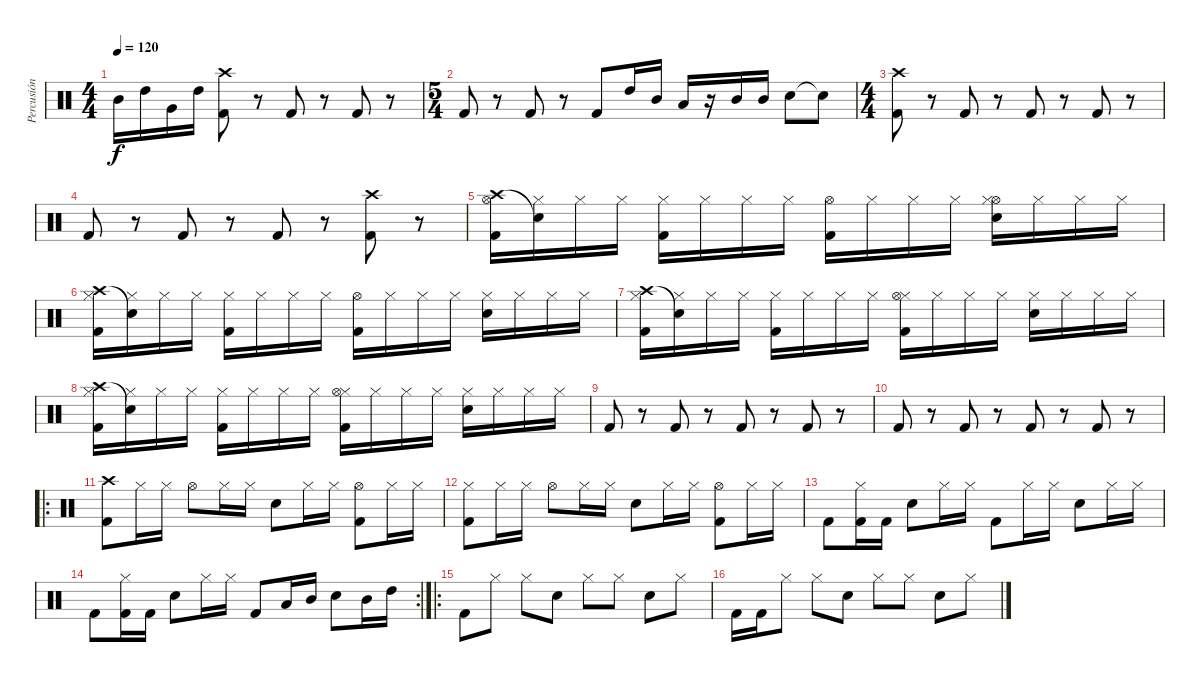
\track ("Percusión" "Percusión") {instrument percussion}
\staff {score}
\articulation defaults
\ts (4 4)
\tempo 120
\clef neutral
\ks c "Mid Tom (hit)".16{dy f} "High Tom (hit)".16 "Very Low Tom (hit)".16 "High Tom (hit)".16
("Crash high (hit)" "Kick (hit) 2").8 r.8 "Kick (hit) 2".8 r.8 "Kick (hit) 2".8 r.8 |
\ts (5 4)
"Kick (hit) 2".8 r.8 "Kick (hit) 2".8 r.8 "Kick (hit) 2".8 "High Tom (hit)".16 "Mid Tom (hit)".16 "Low Tom (hit)".16 r.16 "Mid Tom (hit)".16 "Mid Tom (hit)".16 "Snare (hit) 2".8 "Snare (hit)"{t}.8 |
\ts (4 4)
("Crash high (hit)" "Kick (hit) 2").8 r.8 "Kick (hit) 2".8 r.8 "Kick (hit) 2".8 r.8 "Kick (hit) 2".8 r.8 |
"Kick (hit) 2".8 r.8 "Kick (hit) 2".8 r.8 "Kick (hit) 2".8 r.8 ("Crash high (hit)" "Kick (hit) 2").8 r.8 |
("Crash high (hit)" "Kick (hit) 2" "Hi-Hat (open)").16 ("Snare (hit)"{t} "Hi-Hat (closed)").16 "Hi-Hat (closed)".16 "Hi-Hat (closed)".16 ("Kick (hit) 2" "Hi-Hat (closed)").16 "Hi-Hat (closed)".16 "Hi-Hat (closed)".16 "Hi-Hat (closed)".16 ("Kick (hit) 2" "Hi-Hat (open)").16 "Hi-Hat (closed)".16 "Hi-Hat (closed)".16 "Hi-Hat (closed)".16 ("Hi-Hat (open)" "Snare (hit) 2" "Hi-Hat (closed)").16 "Hi-Hat (closed)".16 "Hi-Hat (closed)".16 "Hi-Hat (closed)".16 |
("Crash high (hit)" "Kick (hit) 2" "Hi-Hat (closed)").16 ("Snare (hit)"{t} "Hi-Hat (closed)").16 "Hi-Hat (closed)".16 "Hi-Hat (closed)".16 ("Kick (hit) 2" "Hi-Hat (closed)").16 "Hi-Hat (closed)".16 "Hi-Hat (closed)".16 "Hi-Hat (closed)".16 ("Kick (hit) 2" "Hi-Hat (open)").16 "Hi-Hat (closed)".16 "Hi-Hat (closed)".16 "Hi-Hat (closed)".16 ("Snare (hit) 2" "Hi-Hat (closed)").16 "Hi-Hat (closed)".16 "Hi-Hat (closed)".16 "Hi-Hat (closed)".16 |
("Crash high (hit)" "Kick (hit) 2" "Hi-Hat (closed)").16 ("Snare (hit)"{t} "Hi-Hat (closed)").16 "Hi-Hat (closed)".16 "Hi-Hat (closed)".16 ("Kick (hit) 2" "Hi-Hat (closed)").16 "Hi-Hat (closed)".16 "Hi-Hat (closed)".16 "Hi-Hat (closed)".16 ("Kick (hit) 2" "Hi-Hat (closed)" "Hi-Hat (open)").16 "Hi-Hat (closed)".16 "Hi-Hat (closed)".16 "Hi-Hat (closed)".16 ("Snare (hit) 2" "Hi-Hat (closed)").16 "Hi-Hat (closed)".16 "Hi-Hat (closed)".16 "Hi-Hat (closed)".16 |
("Crash high (hit)" "Kick (hit) 2" "Hi-Hat (closed)").16 ("Snare (hit)"{t} "Hi-Hat (closed)").16 "Hi-Hat (closed)".16 "Hi-Hat (closed)".16 ("Kick (hit) 2" "Hi-Hat (closed)").16 "Hi-Hat (closed)".16 "Hi-Hat (closed)".16 "Hi-Hat (closed)".16 ("Kick (hit) 2" "Hi-Hat (closed)" "Hi-Hat (open)").16 "Hi-Hat (closed)".16 "Hi-Hat (closed)".16 "Hi-Hat (closed)".16 ("Snare (hit) 2" "Hi-Hat (closed)").16 "Hi-Hat (closed)".16 "Hi-Hat (closed)".16 "Hi-Hat (closed)".16 |
"Kick (hit) 2".8 r.8 "Kick (hit) 2".8 r.8 "Kick (hit) 2".8 r.8 "Kick (hit) 2".8 r.8 |
"Kick (hit) 2".8 r.8 "Kick (hit) 2".8 r.8 "Kick (hit) 2".8 r.8 "Kick (hit) 2".8 r.8 |
\ro
("Crash high (hit)" "Kick (hit) 2").8 "Hi-Hat (closed)".16 "Hi-Hat (closed)".16 "Hi-Hat (open)".8 "Hi-Hat (closed)".16 "Hi-Hat (closed)".16 "Snare (hit) 2".8 "Hi-Hat (closed)".16 "Hi-Hat (closed)".16 ("Hi-Hat (open)" "Kick (hit) 2").8 "Hi-Hat (closed)".16 "Hi-Hat (closed)".16 |
("Hi-Hat (closed)" "Kick (hit) 2").8 "Hi-Hat (closed)".16 "Hi-Hat (closed)".16 "Hi-Hat (open)".8 "Hi-Hat (closed)".16 "Hi-Hat (closed)".16 "Snare (hit) 2".8 "Hi-Hat (closed)".16 "Hi-Hat (closed)".16 ("Hi-Hat (open)" "Kick (hit) 2").8 "Hi-Hat (closed)".16 "Hi-Hat (closed)".16 |
"Kick (hit) 2".8 ("Hi-Hat (closed)" "Kick (hit) 2").16 "Kick (hit) 2".16 "Snare (hit) 2".8 "Hi-Hat (closed)".16 "Hi-Hat (closed)".16 "Kick (hit) 2".8 "Hi-Hat (closed)".16 "Hi-Hat (closed)".16 "Snare (hit) 2".8 "Hi-Hat (closed)".16 "Hi-Hat (closed)".16 |
\rc 2 "Kick (hit) 2".8
("Hi-Hat (closed)" "Kick (hit) 2").16 "Kick (hit) 2".16 "Snare (hit) 2".8 "Hi-Hat (closed)".16 "Hi-Hat (closed)".16 "Kick (hit) 2".8 "Low Tom (hit)".16 "Mid Tom (hit)".16 "Snare (hit) 2".8 "Mid Tom (hit)".16 "High Tom (hit)".16 |
\ro "Kick (hit) 2".8 "Hi-Hat (closed)".8 "Hi-Hat (closed)".8 "Snare (hit) 2".8 "Hi-Hat (closed)".8 "Hi-Hat (closed)".8 "Snare (hit) 2".8 "Hi-Hat (closed)".8
|
"Kick (hit) 2".16 "Kick (hit) 2".16 "Hi-Hat (closed)".8 "Hi-Hat (closed)".8 "Snare (hit) 2".8 "Hi-Hat (closed)".8 "Hi-Hat (closed)".8 "Snare (hit) 2".8 "Hi-Hat (closed)".8
